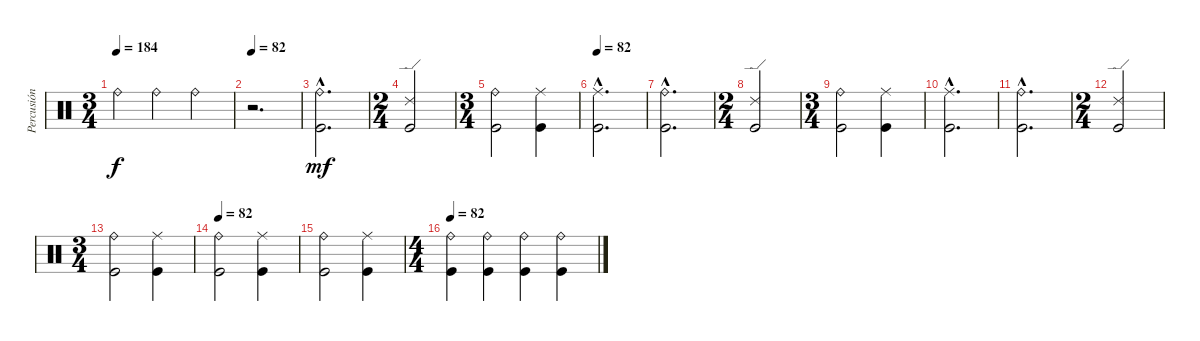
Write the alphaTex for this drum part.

\track ("Percusión" "Percusión") {instrument percussion}
\staff {score}
\articulation defaults
\ts (3 4)
\tempo 184
\tempo 82
\tempo 184
\clef neutral
\ks c "Ride (bell)".4{dy f} "Ride (bell)".4 "Ride (bell)".4
|
\tempo 82
r.2{d} |
("Ride (bell)"{hac} "Kick (hit)"{hac}).2{d dy mf} |
\ts (2 4)
("Ride (edge) 2" "Kick (hit)").2 |
\ts (3 4)
("Ride (bell)" "Kick (hit)").2 ("Ride (middle)" "Kick (hit)").4 |
\tempo 82
("Ride (middle)"{hac} "Kick (hit)"{hac}).2{d} |
("Ride (bell)"{hac} "Kick (hit)"{hac}).2{d} |
\ts (2 4)
("Ride (edge) 2" "Kick (hit)").2 |
\ts (3 4)
("Ride (bell)" "Kick (hit)").2 ("Ride (middle)" "Kick (hit)").4 |
("Ride (middle)"{hac} "Kick (hit)"{hac}).2{d} |
("Ride (bell)"{hac} "Kick (hit)"{hac}).2{d} |
\ts (2 4)
("Ride (edge) 2" "Kick (hit)").2 |
\ts (3 4)
("Ride (bell)" "Kick (hit)").2 ("Ride (middle)" "Kick (hit)").4 |
\tempo 82
("Ride (bell)" "Kick (hit)").2 ("Ride (middle)" "Kick (hit)").4 |
("Ride (bell)" "Kick (hit)").2 ("Ride (middle)" "Kick (hit)").4 |
\ts (4 4)
\tempo 82
("Ride (bell)" "Kick (hit)").4 ("Ride (bell)" "Kick (hit)").4 ("Ride (bell)" "Kick (hit)").4 ("Ride (bell)" "Kick (hit)").4
